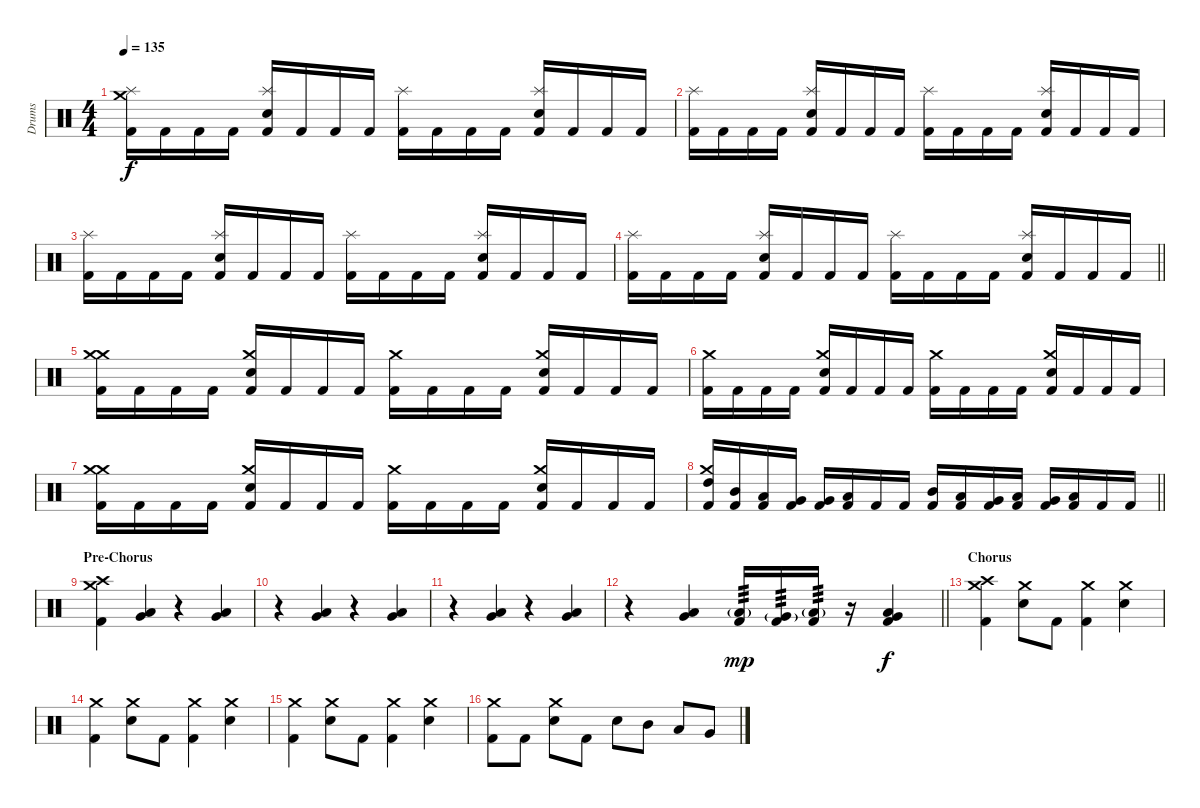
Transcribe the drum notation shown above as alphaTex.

\track ("Drums" "Drums") {instrument percussion}
\staff {score}
\articulation defaults
\ts (4 4)
\section ("" "")
\tempo 135
\clef neutral
\ks c
("Kick (hit) 2" "Splash (hit)" "Crash medium (hit)").16{dy f} "Kick (hit) 2".16 "Kick (hit) 2".16 "Kick (hit) 2".16 ("Kick (hit) 2" "Snare (hit) 2" "Splash (hit)").16 "Kick (hit) 2".16 "Kick (hit) 2".16 "Kick (hit) 2".16 ("Kick (hit) 2" "Splash (hit)").16 "Kick (hit) 2".16 "Kick (hit) 2".16 "Kick (hit) 2".16 ("Kick (hit) 2" "Snare (hit) 2" "Splash (hit)").16 "Kick (hit) 2".16 "Kick (hit) 2".16 "Kick (hit) 2".16 |
("Kick (hit) 2" "Splash (hit)").16 "Kick (hit) 2".16 "Kick (hit) 2".16 "Kick (hit) 2".16 ("Kick (hit) 2" "Snare (hit) 2" "Splash (hit)").16 "Kick (hit) 2".16 "Kick (hit) 2".16 "Kick (hit) 2".16 ("Kick (hit) 2" "Splash (hit)").16 "Kick (hit) 2".16 "Kick (hit) 2".16 "Kick (hit) 2".16 ("Kick (hit) 2" "Snare (hit) 2" "Splash (hit)").16 "Kick (hit) 2".16 "Kick (hit) 2".16 "Kick (hit) 2".16 |
("Kick (hit) 2" "Splash (hit)").16 "Kick (hit) 2".16 "Kick (hit) 2".16 "Kick (hit) 2".16 ("Kick (hit) 2" "Snare (hit) 2" "Splash (hit)").16 "Kick (hit) 2".16 "Kick (hit) 2".16 "Kick (hit) 2".16 ("Kick (hit) 2" "Splash (hit)").16 "Kick (hit) 2".16 "Kick (hit) 2".16 "Kick (hit) 2".16 ("Kick (hit) 2" "Snare (hit) 2" "Splash (hit)").16 "Kick (hit) 2".16 "Kick (hit) 2".16 "Kick (hit) 2".16 |
\barLineRight lightlight
("Kick (hit) 2" "Splash (hit)").16 "Kick (hit) 2".16 "Kick (hit) 2".16 "Kick (hit) 2".16 ("Kick (hit) 2" "Snare (hit) 2" "Splash (hit)").16 "Kick (hit) 2".16 "Kick (hit) 2".16 "Kick (hit) 2".16 ("Kick (hit) 2" "Splash (hit)").16 "Kick (hit) 2".16 "Kick (hit) 2".16 "Kick (hit) 2".16 ("Kick (hit) 2" "Snare (hit) 2" "Splash (hit)").16 "Kick (hit) 2".16 "Kick (hit) 2".16 "Kick (hit) 2".16 |
("Kick (hit) 2" "Crash medium (hit)" "Crash medium (hit)").16 "Kick (hit) 2".16 "Kick (hit) 2".16 "Kick (hit) 2".16 ("Kick (hit) 2" "Snare (hit) 2" "Crash medium (hit)").16 "Kick (hit) 2".16 "Kick (hit) 2".16 "Kick (hit) 2".16 ("Kick (hit) 2" "Crash medium (hit)").16 "Kick (hit) 2".16 "Kick (hit) 2".16 "Kick (hit) 2".16 ("Kick (hit) 2" "Snare (hit) 2" "Crash medium (hit)").16 "Kick (hit) 2".16 "Kick (hit) 2".16 "Kick (hit) 2".16 |
("Kick (hit) 2" "Crash medium (hit)").16 "Kick (hit) 2".16 "Kick (hit) 2".16 "Kick (hit) 2".16 ("Kick (hit) 2" "Snare (hit) 2" "Crash medium (hit)").16 "Kick (hit) 2".16 "Kick (hit) 2".16 "Kick (hit) 2".16 ("Kick (hit) 2" "Crash medium (hit)").16 "Kick (hit) 2".16 "Kick (hit) 2".16 "Kick (hit) 2".16 ("Kick (hit) 2" "Snare (hit) 2" "Crash medium (hit)").16 "Kick (hit) 2".16 "Kick (hit) 2".16 "Kick (hit) 2".16 |
("Kick (hit) 2" "Crash medium (hit)" "Crash medium (hit)").16 "Kick (hit) 2".16 "Kick (hit) 2".16 "Kick (hit) 2".16 ("Kick (hit) 2" "Snare (hit) 2" "Crash medium (hit)").16 "Kick (hit) 2".16 "Kick (hit) 2".16 "Kick (hit) 2".16 ("Kick (hit) 2" "Crash medium (hit)").16 "Kick (hit) 2".16 "Kick (hit) 2".16 "Kick (hit) 2".16 ("Kick (hit) 2" "Snare (hit) 2" "Crash medium (hit)").16 "Kick (hit) 2".16 "Kick (hit) 2".16 "Kick (hit) 2".16 |
\barLineRight lightlight
("Kick (hit) 2" "High Tom (hit)" "Crash medium (hit)").16 ("Kick (hit) 2" "Mid Tom (hit)").16 ("Kick (hit) 2" "Low Tom (hit)").16 ("Kick (hit) 2" "Very Low Tom (hit)").16 ("Kick (hit) 2" "Very Low Tom (hit)").16 ("Kick (hit) 2" "Low Floor Tom (hit)").16 "Kick (hit) 2".16 "Kick (hit) 2".16 ("Kick (hit) 2" "Mid Tom (hit)").16 ("Kick (hit) 2" "Low Tom (hit)").16 ("Kick (hit) 2" "Very Low Tom (hit)").16 ("Kick (hit) 2" "Low Floor Tom (hit)").16 ("Kick (hit) 2" "Very Low Tom (hit)").16 ("Kick (hit) 2" "Low Floor Tom (hit)").16 "Kick (hit) 2".16 "Kick (hit) 2".16 |
\section ("" "Pre-Chorus")
("Kick (hit) 2" "Crash medium (hit)" "Crash high (hit)").4 ("Low Tom (hit)" "Very Low Tom (hit)").4 r.4 ("Low Tom (hit)" "Very Low Tom (hit)").4 |
r.4 ("Low Tom (hit)" "Very Low Tom (hit)").4 r.4 ("Low Tom (hit)" "Very Low Tom (hit)").4 |
r.4 ("Low Tom (hit)" "Very Low Tom (hit)").4 r.4 ("Low Tom (hit)" "Very Low Tom (hit)").4 |
\barLineRight lightlight
r.4 ("Low Tom (hit)" "Very Low Tom (hit)").4 ("Kick (hit) 2" "Low Tom (hit)"{g}).16{tp 3 dy mp} ("Kick (hit) 2" "Very Low Tom (hit)"{g}).16{tp 3} ("Kick (hit) 2" "Low Floor Tom (hit)"{g}).16{tp 3} r.16 ("Kick (hit) 2" "Low Tom (hit)" "Very Low Tom (hit)").4{dy f} |
\section ("" "Chorus")
("Kick (hit) 2" "Crash medium (hit)" "Crash high (hit)").4 ("Snare (hit) 2" "Crash medium (hit)").8 "Kick (hit) 2".8 ("Kick (hit) 2" "Crash medium (hit)").4 ("Snare (hit) 2" "Crash medium (hit)").4 |
("Kick (hit) 2" "Crash medium (hit)").4 ("Snare (hit) 2" "Crash medium (hit)").8 "Kick (hit) 2".8 ("Kick (hit) 2" "Crash medium (hit)").4 ("Snare (hit) 2" "Crash medium (hit)").4 |
("Kick (hit) 2" "Crash medium (hit)").4 ("Snare (hit) 2" "Crash medium (hit)").8 "Kick (hit) 2".8 ("Kick (hit) 2" "Crash medium (hit)").4 ("Snare (hit) 2" "Crash medium (hit)").4 |
("Kick (hit) 2" "Crash medium (hit)").8 "Kick (hit) 2".8 ("Snare (hit) 2" "Crash medium (hit)").8 "Kick (hit) 2".8 "Snare (hit) 2".8 "Mid Tom (hit)".8 "Low Tom (hit)".8 "Very Low Tom (hit)".8
